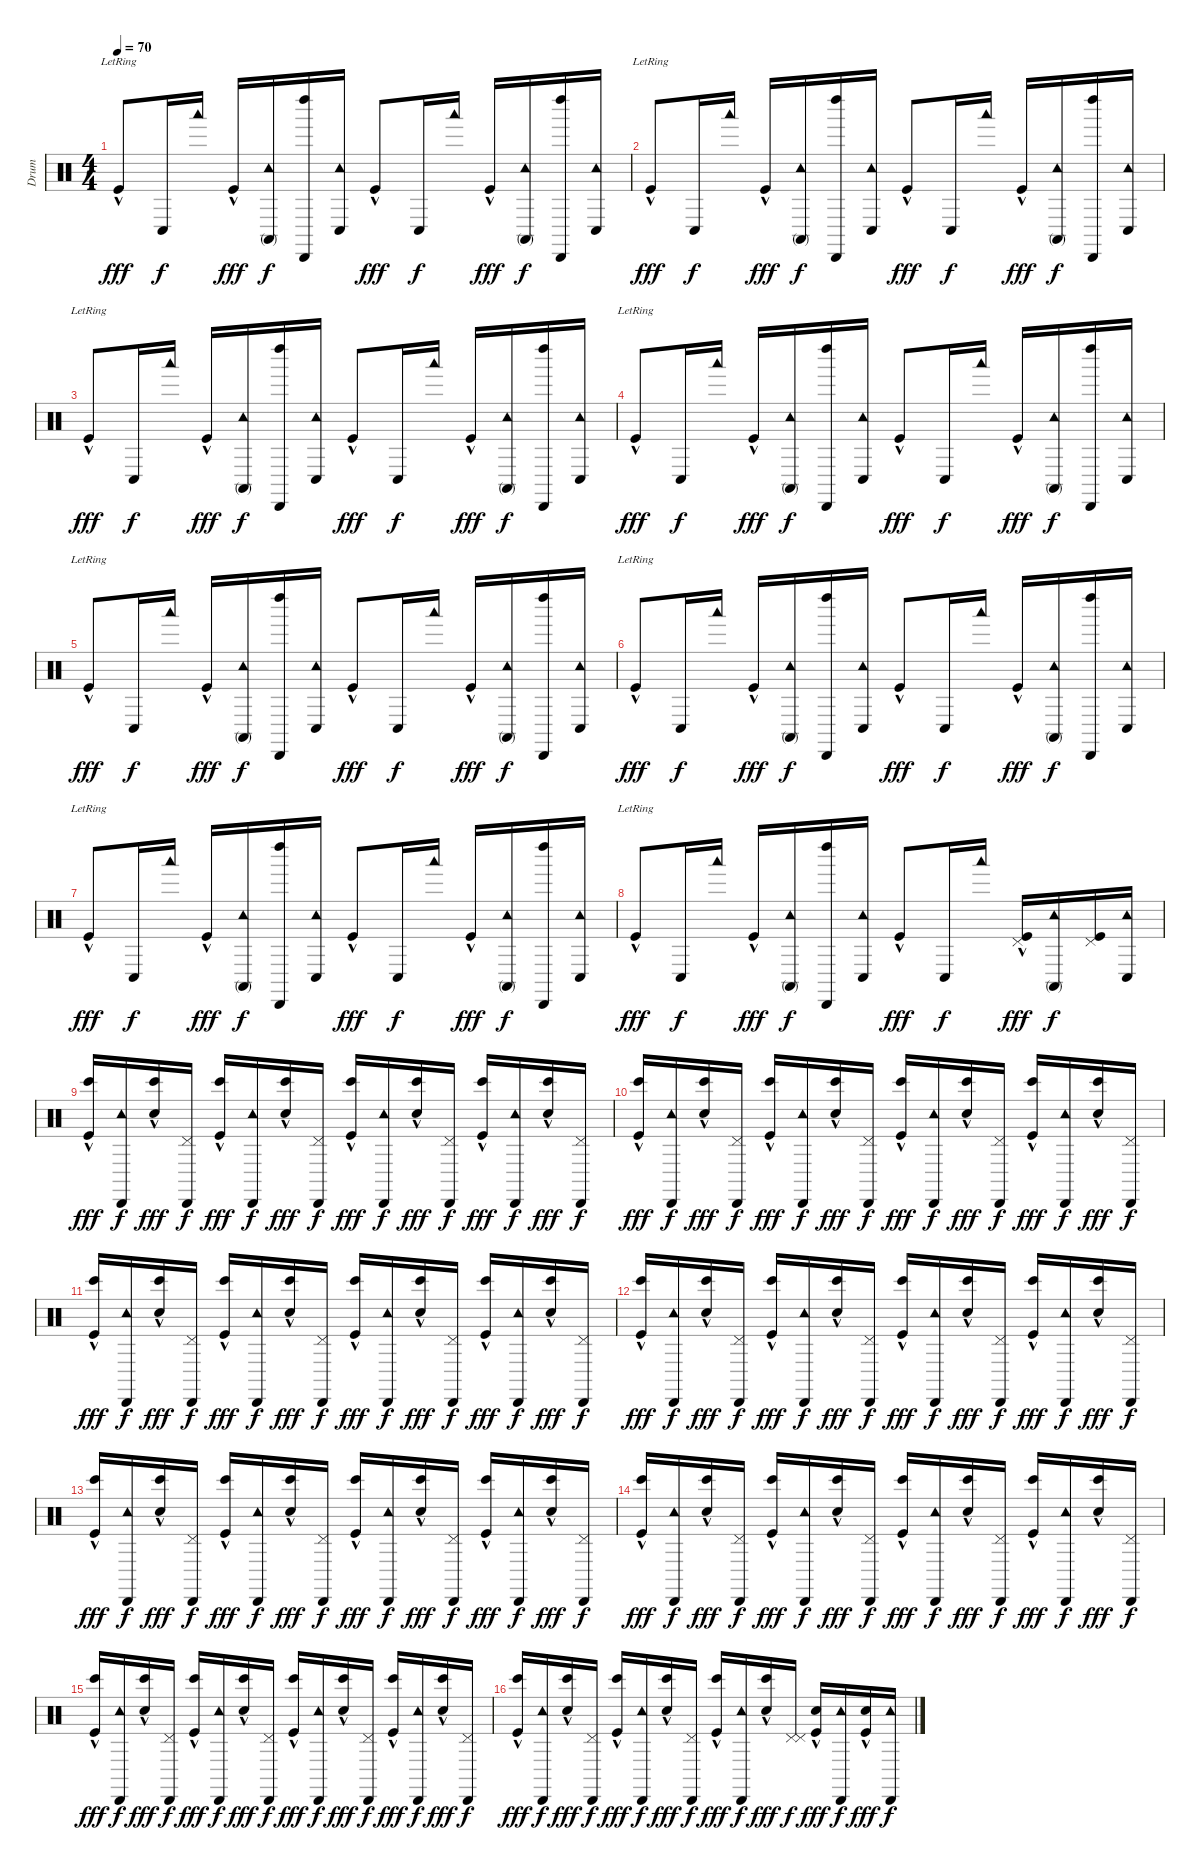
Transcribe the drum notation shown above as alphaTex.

\track ("Drum" "Drum") {instrument percussion}
\staff {score}
\articulation defaults
\ts (4 4)
\tempo 70
\clef neutral
\ks c "Kick (hit)"{hac lr}.8{dy fff} "Conga low (hit)".16{dy f} "Woodblock low (hit)".16 "Kick (hit)"{hac}.16{dy fff}
("Tambourine (hit)" "Conga high (mute)").16{dy f} ("Left Maraca (hit)" "Cabasa (hit)").16 ("Tambourine (hit)" "Conga low (hit)").16 "Kick (hit)"{hac}.8{dy fff} "Conga low (hit)".16{dy f} "Woodblock low (hit)".16 "Kick (hit)"{hac}.16{dy fff} ("Tambourine (hit)" "Conga high (mute)").16{dy f} ("Cabasa (hit)" "Left Maraca (hit)").16 ("Tambourine (hit)" "Conga low (hit)").16 |
"Kick (hit)"{hac lr}.8{dy fff} "Conga low (hit)".16{dy f} "Woodblock low (hit)".16 "Kick (hit)"{hac}.16{dy fff} ("Tambourine (hit)" "Conga high (mute)").16{dy f} ("Left Maraca (hit)" "Cabasa (hit)").16 ("Tambourine (hit)" "Conga low (hit)").16 "Kick (hit)"{hac}.8{dy fff} "Conga low (hit)".16{dy f} "Woodblock low (hit)".16 "Kick (hit)"{hac}.16{dy fff} ("Tambourine (hit)" "Conga high (mute)").16{dy f} ("Cabasa (hit)" "Left Maraca (hit)").16 ("Tambourine (hit)" "Conga low (hit)").16 |
"Kick (hit)"{hac lr}.8{dy fff} "Conga low (hit)".16{dy f} "Woodblock low (hit)".16 "Kick (hit)"{hac}.16{dy fff} ("Tambourine (hit)" "Conga high (mute)").16{dy f} ("Left Maraca (hit)" "Cabasa (hit)").16 ("Tambourine (hit)" "Conga low (hit)").16 "Kick (hit)"{hac}.8{dy fff} "Conga low (hit)".16{dy f} "Woodblock low (hit)".16 "Kick (hit)"{hac}.16{dy fff} ("Tambourine (hit)" "Conga high (mute)").16{dy f} ("Cabasa (hit)" "Left Maraca (hit)").16 ("Tambourine (hit)" "Conga low (hit)").16 |
"Kick (hit)"{hac lr}.8{dy fff} "Conga low (hit)".16{dy f} "Woodblock low (hit)".16 "Kick (hit)"{hac}.16{dy fff} ("Tambourine (hit)" "Conga high (mute)").16{dy f} ("Left Maraca (hit)" "Cabasa (hit)").16 ("Tambourine (hit)" "Conga low (hit)").16 "Kick (hit)"{hac}.8{dy fff} "Conga low (hit)".16{dy f} "Woodblock low (hit)".16 "Kick (hit)"{hac}.16{dy fff} ("Tambourine (hit)" "Conga high (mute)").16{dy f} ("Cabasa (hit)" "Left Maraca (hit)").16 ("Tambourine (hit)" "Conga low (hit)").16 |
"Kick (hit)"{hac lr}.8{dy fff} "Conga low (hit)".16{dy f} "Woodblock low (hit)".16 "Kick (hit)"{hac}.16{dy fff} ("Tambourine (hit)" "Conga high (mute)").16{dy f} ("Left Maraca (hit)" "Cabasa (hit)").16 ("Tambourine (hit)" "Conga low (hit)").16 "Kick (hit)"{hac}.8{dy fff} "Conga low (hit)".16{dy f} "Woodblock low (hit)".16 "Kick (hit)"{hac}.16{dy fff} ("Tambourine (hit)" "Conga high (mute)").16{dy f} ("Cabasa (hit)" "Left Maraca (hit)").16 ("Tambourine (hit)" "Conga low (hit)").16 |
"Kick (hit)"{hac lr}.8{dy fff} "Conga low (hit)".16{dy f} "Woodblock low (hit)".16 "Kick (hit)"{hac}.16{dy fff} ("Tambourine (hit)" "Conga high (mute)").16{dy f} ("Left Maraca (hit)" "Cabasa (hit)").16 ("Tambourine (hit)" "Conga low (hit)").16 "Kick (hit)"{hac}.8{dy fff} "Conga low (hit)".16{dy f} "Woodblock low (hit)".16 "Kick (hit)"{hac}.16{dy fff} ("Tambourine (hit)" "Conga high (mute)").16{dy f} ("Cabasa (hit)" "Left Maraca (hit)").16 ("Tambourine (hit)" "Conga low (hit)").16 |
"Kick (hit)"{hac lr}.8{dy fff} "Conga low (hit)".16{dy f} "Woodblock low (hit)".16 "Kick (hit)"{hac}.16{dy fff} ("Tambourine (hit)" "Conga high (mute)").16{dy f} ("Left Maraca (hit)" "Cabasa (hit)").16 ("Tambourine (hit)" "Conga low (hit)").16 "Kick (hit)"{hac}.8{dy fff} "Conga low (hit)".16{dy f} "Woodblock low (hit)".16 "Kick (hit)"{hac}.16{dy fff} ("Tambourine (hit)" "Conga high (mute)").16{dy f} ("Cabasa (hit)" "Left Maraca (hit)").16 ("Tambourine (hit)" "Conga low (hit)").16 |
"Kick (hit)"{hac lr}.8{dy fff} "Conga low (hit)".16{dy f} "Woodblock low (hit)".16 "Kick (hit)"{hac}.16{dy fff} ("Tambourine (hit)" "Conga high (mute)").16{dy f} ("Left Maraca (hit)" "Cabasa (hit)").16 ("Tambourine (hit)" "Conga low (hit)").16 "Kick (hit)"{hac}.8{dy fff} "Conga low (hit)".16{dy f} "Woodblock low (hit)".16 ("Pedal Hi-Hat (hit)" "Kick (hit)"{hac}).16{dy fff} ("Tambourine (hit)" "Conga high (mute)").16{dy f} ("Pedal Hi-Hat (hit)" "Kick (hit)").16 ("Tambourine (hit)" "Conga low (hit)").16 |
("Kick (hit)"{hac} "Bongo High (hit)").16{dy fff} ("Cabasa (hit)" "Tambourine (hit)").16{dy f} ("Hand Clap (hit)"{hac} "Bongo High (hit)").16{dy fff} ("Cabasa (hit)" "Pedal Hi-Hat (hit)").16{dy f} ("Kick (hit)"{hac} "Bongo High (hit)").16{dy fff} ("Cabasa (hit)" "Tambourine (hit)").16{dy f} ("Hand Clap (hit)"{hac} "Bongo High (hit)").16{dy fff} ("Cabasa (hit)" "Pedal Hi-Hat (hit)").16{dy f} ("Kick (hit)"{hac} "Bongo High (hit)").16{dy fff} ("Cabasa (hit)" "Tambourine (hit)").16{dy f} ("Hand Clap (hit)"{hac} "Bongo High (hit)").16{dy fff} ("Cabasa (hit)" "Pedal Hi-Hat (hit)").16{dy f} ("Kick (hit)"{hac} "Bongo High (hit)").16{dy fff} ("Cabasa (hit)" "Tambourine (hit)").16{dy f} ("Hand Clap (hit)"{hac} "Bongo High (hit)").16{dy fff} ("Cabasa (hit)" "Pedal Hi-Hat (hit)").16{dy f} |
("Kick (hit)"{hac} "Bongo High (hit)").16{dy fff} ("Cabasa (hit)" "Tambourine (hit)").16{dy f} ("Hand Clap (hit)"{hac} "Bongo High (hit)").16{dy fff} ("Cabasa (hit)" "Pedal Hi-Hat (hit)").16{dy f} ("Kick (hit)"{hac} "Bongo High (hit)").16{dy fff} ("Cabasa (hit)" "Tambourine (hit)").16{dy f} ("Hand Clap (hit)"{hac} "Bongo High (hit)").16{dy fff} ("Cabasa (hit)" "Pedal Hi-Hat (hit)").16{dy f} ("Kick (hit)"{hac} "Bongo High (hit)").16{dy fff} ("Cabasa (hit)" "Tambourine (hit)").16{dy f} ("Hand Clap (hit)"{hac} "Bongo High (hit)").16{dy fff} ("Cabasa (hit)" "Pedal Hi-Hat (hit)").16{dy f} ("Kick (hit)"{hac} "Bongo High (hit)").16{dy fff} ("Cabasa (hit)" "Tambourine (hit)").16{dy f} ("Hand Clap (hit)"{hac} "Bongo High (hit)").16{dy fff} ("Cabasa (hit)" "Pedal Hi-Hat (hit)").16{dy f} |
("Kick (hit)"{hac} "Bongo High (hit)").16{dy fff} ("Cabasa (hit)" "Tambourine (hit)").16{dy f} ("Hand Clap (hit)"{hac} "Bongo High (hit)").16{dy fff} ("Cabasa (hit)" "Pedal Hi-Hat (hit)").16{dy f} ("Kick (hit)"{hac} "Bongo High (hit)").16{dy fff} ("Cabasa (hit)" "Tambourine (hit)").16{dy f} ("Hand Clap (hit)"{hac} "Bongo High (hit)").16{dy fff} ("Cabasa (hit)" "Pedal Hi-Hat (hit)").16{dy f} ("Kick (hit)"{hac} "Bongo High (hit)").16{dy fff} ("Cabasa (hit)" "Tambourine (hit)").16{dy f} ("Hand Clap (hit)"{hac} "Bongo High (hit)").16{dy fff} ("Cabasa (hit)" "Pedal Hi-Hat (hit)").16{dy f} ("Kick (hit)"{hac} "Bongo High (hit)").16{dy fff} ("Cabasa (hit)" "Tambourine (hit)").16{dy f} ("Hand Clap (hit)"{hac} "Bongo High (hit)").16{dy fff} ("Cabasa (hit)" "Pedal Hi-Hat (hit)").16{dy f} |
("Kick (hit)"{hac} "Bongo High (hit)").16{dy fff} ("Cabasa (hit)" "Tambourine (hit)").16{dy f} ("Hand Clap (hit)"{hac} "Bongo High (hit)").16{dy fff} ("Cabasa (hit)" "Pedal Hi-Hat (hit)").16{dy f} ("Kick (hit)"{hac} "Bongo High (hit)").16{dy fff} ("Cabasa (hit)" "Tambourine (hit)").16{dy f} ("Hand Clap (hit)"{hac} "Bongo High (hit)").16{dy fff} ("Cabasa (hit)" "Pedal Hi-Hat (hit)").16{dy f} ("Kick (hit)"{hac} "Bongo High (hit)").16{dy fff} ("Cabasa (hit)" "Tambourine (hit)").16{dy f} ("Hand Clap (hit)"{hac} "Bongo High (hit)").16{dy fff} ("Cabasa (hit)" "Pedal Hi-Hat (hit)").16{dy f} ("Kick (hit)"{hac} "Bongo High (hit)").16{dy fff} ("Cabasa (hit)" "Tambourine (hit)").16{dy f} ("Hand Clap (hit)"{hac} "Bongo High (hit)").16{dy fff} ("Cabasa (hit)" "Pedal Hi-Hat (hit)").16{dy f} |
("Kick (hit)"{hac} "Bongo High (hit)").16{dy fff} ("Cabasa (hit)" "Tambourine (hit)").16{dy f} ("Hand Clap (hit)"{hac} "Bongo High (hit)").16{dy fff} ("Cabasa (hit)" "Pedal Hi-Hat (hit)").16{dy f} ("Kick (hit)"{hac} "Bongo High (hit)").16{dy fff} ("Cabasa (hit)" "Tambourine (hit)").16{dy f} ("Hand Clap (hit)"{hac} "Bongo High (hit)").16{dy fff} ("Cabasa (hit)" "Pedal Hi-Hat (hit)").16{dy f} ("Kick (hit)"{hac} "Bongo High (hit)").16{dy fff} ("Cabasa (hit)" "Tambourine (hit)").16{dy f} ("Hand Clap (hit)"{hac} "Bongo High (hit)").16{dy fff} ("Cabasa (hit)" "Pedal Hi-Hat (hit)").16{dy f} ("Kick (hit)"{hac} "Bongo High (hit)").16{dy fff} ("Cabasa (hit)" "Tambourine (hit)").16{dy f} ("Hand Clap (hit)"{hac} "Bongo High (hit)").16{dy fff} ("Cabasa (hit)" "Pedal Hi-Hat (hit)").16{dy f} |
("Kick (hit)"{hac} "Bongo High (hit)").16{dy fff} ("Cabasa (hit)" "Tambourine (hit)").16{dy f} ("Hand Clap (hit)"{hac} "Bongo High (hit)").16{dy fff} ("Cabasa (hit)" "Pedal Hi-Hat (hit)").16{dy f} ("Kick (hit)"{hac} "Bongo High (hit)").16{dy fff} ("Cabasa (hit)" "Tambourine (hit)").16{dy f} ("Hand Clap (hit)"{hac} "Bongo High (hit)").16{dy fff} ("Cabasa (hit)" "Pedal Hi-Hat (hit)").16{dy f} ("Kick (hit)"{hac} "Bongo High (hit)").16{dy fff} ("Cabasa (hit)" "Tambourine (hit)").16{dy f} ("Hand Clap (hit)"{hac} "Bongo High (hit)").16{dy fff} ("Cabasa (hit)" "Pedal Hi-Hat (hit)").16{dy f} ("Kick (hit)"{hac} "Bongo High (hit)").16{dy fff} ("Cabasa (hit)" "Tambourine (hit)").16{dy f} ("Hand Clap (hit)"{hac} "Bongo High (hit)").16{dy fff} ("Cabasa (hit)" "Pedal Hi-Hat (hit)").16{dy f} |
("Kick (hit)"{hac} "Bongo High (hit)").16{dy fff} ("Cabasa (hit)" "Tambourine (hit)").16{dy f} ("Hand Clap (hit)"{hac} "Bongo High (hit)").16{dy fff} ("Cabasa (hit)" "Pedal Hi-Hat (hit)").16{dy f} ("Kick (hit)"{hac} "Bongo High (hit)").16{dy fff} ("Cabasa (hit)" "Tambourine (hit)").16{dy f} ("Hand Clap (hit)"{hac} "Bongo High (hit)").16{dy fff} ("Cabasa (hit)" "Pedal Hi-Hat (hit)").16{dy f} ("Kick (hit)"{hac} "Bongo High (hit)").16{dy fff} ("Cabasa (hit)" "Tambourine (hit)").16{dy f} ("Hand Clap (hit)"{hac} "Bongo High (hit)").16{dy fff} ("Cabasa (hit)" "Pedal Hi-Hat (hit)").16{dy f} ("Kick (hit)"{hac} "Bongo High (hit)").16{dy fff} ("Cabasa (hit)" "Tambourine (hit)").16{dy f} ("Hand Clap (hit)"{hac} "Bongo High (hit)").16{dy fff} ("Cabasa (hit)" "Pedal Hi-Hat (hit)").16{dy f} |
("Kick (hit)"{hac} "Bongo High (hit)").16{dy fff} ("Cabasa (hit)" "Tambourine (hit)").16{dy f} ("Hand Clap (hit)"{hac} "Bongo High (hit)").16{dy fff} ("Cabasa (hit)" "Pedal Hi-Hat (hit)").16{dy f} ("Kick (hit)"{hac} "Bongo High (hit)").16{dy fff} ("Cabasa (hit)" "Tambourine (hit)").16{dy f} ("Hand Clap (hit)"{hac} "Bongo High (hit)").16{dy fff} ("Cabasa (hit)" "Pedal Hi-Hat (hit)").16{dy f} ("Kick (hit)"{hac} "Bongo High (hit)").16{dy fff} ("Cabasa (hit)" "Tambourine (hit)").16{dy f} ("Hand Clap (hit)"{hac} "Bongo High (hit)").16{dy fff} ("Pedal Hi-Hat (hit)" "Pedal Hi-Hat (hit)").16{dy f} ("Kick (hit)"{hac} "Hand Clap (hit)"{hac}).16{dy fff} ("Cabasa (hit)" "Tambourine (hit)").16{dy f} ("Hand Clap (hit)"{hac} "Kick (hit)"{hac}).16{dy fff} ("Cabasa (hit)" "Tambourine (hit)").16{dy f}
